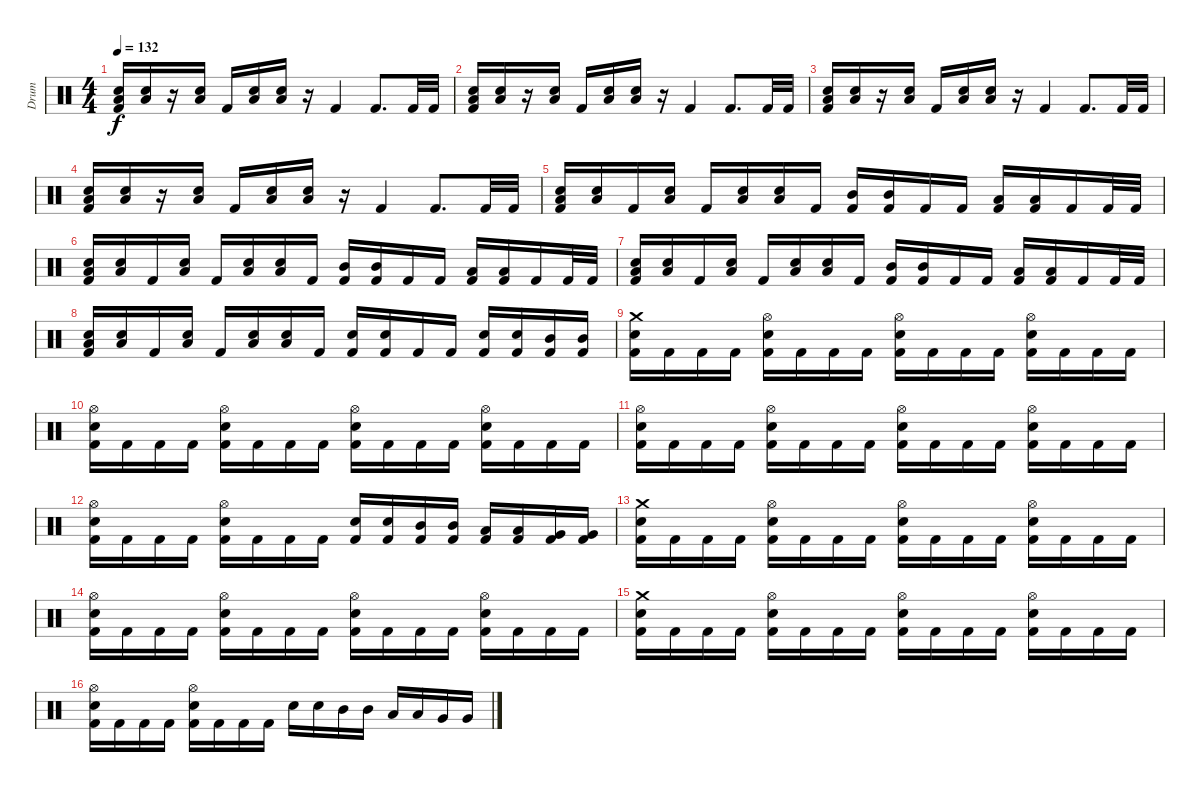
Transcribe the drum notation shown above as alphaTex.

\track ("Drum" "Drum") {instrument percussion}
\staff {score}
\articulation defaults
\ts (4 4)
\tempo 132
\clef neutral
\ks c
("Snare (hit) 2" "Low Floor Tom (hit)" "Kick (hit) 2").16{dy f} ("Snare (hit) 2" "Low Floor Tom (hit)").16 r.16 ("Snare (hit) 2" "Low Floor Tom (hit)").16 "Kick (hit) 2".16 ("Snare (hit) 2" "Low Floor Tom (hit)").16 ("Snare (hit) 2" "Low Floor Tom (hit)").16 r.16 "Kick (hit) 2".4 "Kick (hit) 2".8{d} "Kick (hit) 2".32 "Kick (hit) 2".32 |
("Snare (hit) 2" "Low Floor Tom (hit)" "Kick (hit) 2").16 ("Snare (hit) 2" "Low Floor Tom (hit)").16 r.16 ("Snare (hit) 2" "Low Floor Tom (hit)").16 "Kick (hit) 2".16 ("Snare (hit) 2" "Low Floor Tom (hit)").16 ("Snare (hit) 2" "Low Floor Tom (hit)").16 r.16 "Kick (hit) 2".4 "Kick (hit) 2".8{d} "Kick (hit) 2".32 "Kick (hit) 2".32 |
("Snare (hit) 2" "Low Floor Tom (hit)" "Kick (hit) 2").16 ("Snare (hit) 2" "Low Floor Tom (hit)").16 r.16 ("Snare (hit) 2" "Low Floor Tom (hit)").16 "Kick (hit) 2".16 ("Snare (hit) 2" "Low Floor Tom (hit)").16 ("Snare (hit) 2" "Low Floor Tom (hit)").16 r.16 "Kick (hit) 2".4 "Kick (hit) 2".8{d} "Kick (hit) 2".32 "Kick (hit) 2".32 |
("Snare (hit) 2" "Low Floor Tom (hit)" "Kick (hit) 2").16 ("Snare (hit) 2" "Low Floor Tom (hit)").16 r.16 ("Snare (hit) 2" "Low Floor Tom (hit)").16 "Kick (hit) 2".16 ("Snare (hit) 2" "Low Floor Tom (hit)").16 ("Snare (hit) 2" "Low Floor Tom (hit)").16 r.16 "Kick (hit) 2".4 "Kick (hit) 2".8{d} "Kick (hit) 2".32 "Kick (hit) 2".32 |
("Snare (hit) 2" "Low Floor Tom (hit)" "Kick (hit) 2").16 ("Snare (hit) 2" "Low Floor Tom (hit)").16 "Kick (hit) 2".16 ("Snare (hit) 2" "Low Floor Tom (hit)").16 "Kick (hit) 2".16 ("Snare (hit) 2" "Low Floor Tom (hit)").16 ("Snare (hit) 2" "Low Floor Tom (hit)").16 "Kick (hit) 2".16 ("Mid Tom (hit)" "Kick (hit) 2").16 ("Mid Tom (hit)" "Kick (hit) 2").16 "Kick (hit) 2".16 "Kick (hit) 2".16 ("Low Tom (hit)" "Kick (hit) 2").16 ("Low Tom (hit)" "Kick (hit) 2").16 "Kick (hit) 2".16 "Kick (hit) 2".32 "Kick (hit) 2".32 |
("Snare (hit) 2" "Low Floor Tom (hit)" "Kick (hit) 2").16 ("Snare (hit) 2" "Low Floor Tom (hit)").16 "Kick (hit) 2".16 ("Snare (hit) 2" "Low Floor Tom (hit)").16 "Kick (hit) 2".16 ("Snare (hit) 2" "Low Floor Tom (hit)").16 ("Snare (hit) 2" "Low Floor Tom (hit)").16 "Kick (hit) 2".16 ("Mid Tom (hit)" "Kick (hit) 2").16 ("Mid Tom (hit)" "Kick (hit) 2").16 "Kick (hit) 2".16 "Kick (hit) 2".16 ("Low Tom (hit)" "Kick (hit) 2").16 ("Low Tom (hit)" "Kick (hit) 2").16 "Kick (hit) 2".16 "Kick (hit) 2".32 "Kick (hit) 2".32 |
("Snare (hit) 2" "Low Floor Tom (hit)" "Kick (hit) 2").16 ("Snare (hit) 2" "Low Floor Tom (hit)").16 "Kick (hit) 2".16 ("Snare (hit) 2" "Low Floor Tom (hit)").16 "Kick (hit) 2".16 ("Snare (hit) 2" "Low Floor Tom (hit)").16 ("Snare (hit) 2" "Low Floor Tom (hit)").16 "Kick (hit) 2".16 ("Mid Tom (hit)" "Kick (hit) 2").16 ("Mid Tom (hit)" "Kick (hit) 2").16 "Kick (hit) 2".16 "Kick (hit) 2".16 ("Low Tom (hit)" "Kick (hit) 2").16 ("Low Tom (hit)" "Kick (hit) 2").16 "Kick (hit) 2".16 "Kick (hit) 2".32 "Kick (hit) 2".32 |
("Snare (hit) 2" "Low Floor Tom (hit)" "Kick (hit) 2").16 ("Snare (hit) 2" "Low Floor Tom (hit)").16 "Kick (hit) 2".16 ("Snare (hit) 2" "Low Floor Tom (hit)").16 "Kick (hit) 2".16 ("Snare (hit) 2" "Low Floor Tom (hit)").16 ("Snare (hit) 2" "Low Floor Tom (hit)").16 "Kick (hit) 2".16 ("Snare (hit) 2" "Kick (hit) 2").16 ("Snare (hit) 2" "Kick (hit) 2").16 "Kick (hit) 2".16 "Kick (hit) 2".16 ("Snare (hit) 2" "Kick (hit) 2").16 ("Snare (hit) 2" "Kick (hit) 2").16 ("Mid Tom (hit)" "Kick (hit) 2").16 ("Mid Tom (hit)" "Kick (hit) 2").16 |
("Crash medium (hit)" "Snare (hit) 2" "Kick (hit) 2").16 "Kick (hit) 2".16 "Kick (hit) 2".16 "Kick (hit) 2".16 ("Hi-Hat (open)" "Snare (hit) 2" "Kick (hit) 2").16 "Kick (hit) 2".16 "Kick (hit) 2".16 "Kick (hit) 2".16 ("Hi-Hat (open)" "Snare (hit) 2" "Kick (hit) 2").16 "Kick (hit) 2".16 "Kick (hit) 2".16 "Kick (hit) 2".16 ("Hi-Hat (open)" "Snare (hit) 2" "Kick (hit) 2").16 "Kick (hit) 2".16 "Kick (hit) 2".16 "Kick (hit) 2".16 |
("Hi-Hat (open)" "Snare (hit) 2" "Kick (hit) 2").16 "Kick (hit) 2".16 "Kick (hit) 2".16 "Kick (hit) 2".16 ("Hi-Hat (open)" "Snare (hit) 2" "Kick (hit) 2").16 "Kick (hit) 2".16 "Kick (hit) 2".16 "Kick (hit) 2".16 ("Hi-Hat (open)" "Snare (hit) 2" "Kick (hit) 2").16 "Kick (hit) 2".16 "Kick (hit) 2".16 "Kick (hit) 2".16 ("Hi-Hat (open)" "Snare (hit) 2" "Kick (hit) 2").16 "Kick (hit) 2".16 "Kick (hit) 2".16 "Kick (hit) 2".16 |
("Hi-Hat (open)" "Snare (hit) 2" "Kick (hit) 2").16 "Kick (hit) 2".16 "Kick (hit) 2".16 "Kick (hit) 2".16 ("Hi-Hat (open)" "Snare (hit) 2" "Kick (hit) 2").16 "Kick (hit) 2".16 "Kick (hit) 2".16 "Kick (hit) 2".16 ("Hi-Hat (open)" "Snare (hit) 2" "Kick (hit) 2").16 "Kick (hit) 2".16 "Kick (hit) 2".16 "Kick (hit) 2".16 ("Hi-Hat (open)" "Snare (hit) 2" "Kick (hit) 2").16 "Kick (hit) 2".16 "Kick (hit) 2".16 "Kick (hit) 2".16 |
("Hi-Hat (open)" "Snare (hit) 2" "Kick (hit) 2").16 "Kick (hit) 2".16 "Kick (hit) 2".16 "Kick (hit) 2".16 ("Hi-Hat (open)" "Snare (hit) 2" "Kick (hit) 2").16 "Kick (hit) 2".16 "Kick (hit) 2".16 "Kick (hit) 2".16 ("Snare (hit) 2" "Kick (hit) 2").16 ("Snare (hit) 2" "Kick (hit) 2").16 ("Mid Tom (hit)" "Kick (hit) 2").16 ("Mid Tom (hit)" "Kick (hit) 2").16 ("Low Tom (hit)" "Kick (hit) 2").16 ("Low Tom (hit)" "Kick (hit) 2").16 ("Very Low Tom (hit)" "Kick (hit) 2").16 ("Very Low Tom (hit)" "Kick (hit) 2").16 |
("Crash medium (hit)" "Snare (hit) 2" "Kick (hit) 2").16 "Kick (hit) 2".16 "Kick (hit) 2".16 "Kick (hit) 2".16 ("Hi-Hat (open)" "Snare (hit) 2" "Kick (hit) 2").16 "Kick (hit) 2".16 "Kick (hit) 2".16 "Kick (hit) 2".16 ("Hi-Hat (open)" "Snare (hit) 2" "Kick (hit) 2").16 "Kick (hit) 2".16 "Kick (hit) 2".16 "Kick (hit) 2".16 ("Hi-Hat (open)" "Snare (hit) 2" "Kick (hit) 2").16 "Kick (hit) 2".16 "Kick (hit) 2".16 "Kick (hit) 2".16 |
("Hi-Hat (open)" "Snare (hit) 2" "Kick (hit) 2").16 "Kick (hit) 2".16 "Kick (hit) 2".16 "Kick (hit) 2".16 ("Hi-Hat (open)" "Snare (hit) 2" "Kick (hit) 2").16 "Kick (hit) 2".16 "Kick (hit) 2".16 "Kick (hit) 2".16 ("Hi-Hat (open)" "Snare (hit) 2" "Kick (hit) 2").16 "Kick (hit) 2".16 "Kick (hit) 2".16 "Kick (hit) 2".16 ("Hi-Hat (open)" "Snare (hit) 2" "Kick (hit) 2").16 "Kick (hit) 2".16 "Kick (hit) 2".16 "Kick (hit) 2".16 |
("Crash medium (hit)" "Snare (hit) 2" "Kick (hit) 2").16 "Kick (hit) 2".16 "Kick (hit) 2".16 "Kick (hit) 2".16 ("Hi-Hat (open)" "Snare (hit) 2" "Kick (hit) 2").16 "Kick (hit) 2".16 "Kick (hit) 2".16 "Kick (hit) 2".16 ("Hi-Hat (open)" "Snare (hit) 2" "Kick (hit) 2").16 "Kick (hit) 2".16 "Kick (hit) 2".16 "Kick (hit) 2".16 ("Hi-Hat (open)" "Snare (hit) 2" "Kick (hit) 2").16 "Kick (hit) 2".16 "Kick (hit) 2".16 "Kick (hit) 2".16 |
("Hi-Hat (open)" "Snare (hit) 2" "Kick (hit) 2").16 "Kick (hit) 2".16 "Kick (hit) 2".16 "Kick (hit) 2".16 ("Hi-Hat (open)" "Snare (hit) 2" "Kick (hit) 2").16 "Kick (hit) 2".16 "Kick (hit) 2".16 "Kick (hit) 2".16 "Snare (hit) 2".16 "Snare (hit) 2".16 "Mid Tom (hit)".16 "Mid Tom (hit)".16 "Low Tom (hit)".16 "Low Tom (hit)".16 "Very Low Tom (hit)".16 "Very Low Tom (hit)".16
